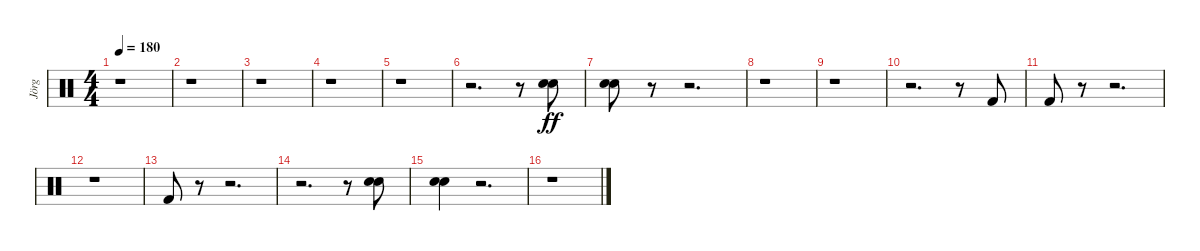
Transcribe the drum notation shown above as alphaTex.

\track ("Jörg" "Jörg") {instrument percussion}
\staff {score}
\articulation defaults
\ts (4 4)
\tempo 180
\clef neutral
\ks c
r.1{dy ff} |
r.1 |
r.1 |
r.1 |
r.1 |
r.2{d} r.8 ("Snare (hit) 2" "Electric Snare (hit)").8 |
("Snare (hit) 2" "Electric Snare (hit)").8 r.8 r.2{d} |
r.1 |
r.1 |
r.2{d} r.8 "Kick (hit) 2".8 |
"Kick (hit) 2".8 r.8 r.2{d} |
r.1 |
"Kick (hit) 2".8 r.8 r.2{d} |
r.2{d} r.8 ("Snare (hit) 2" "Electric Snare (hit)").8 |
("Snare (hit) 2" "Electric Snare (hit)").4 r.2{d} |
r.1
